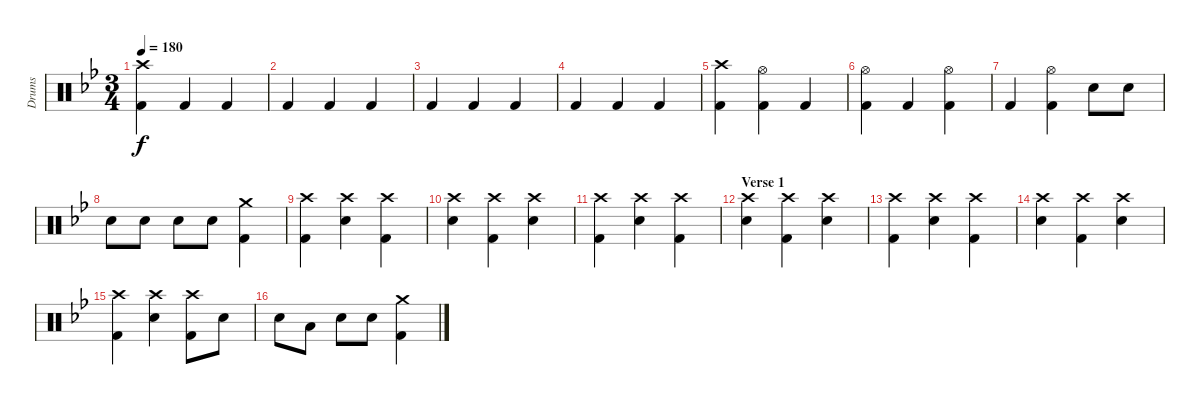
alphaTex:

\bracketExtendMode groupsimilarinstruments
\track ("Drumkit" "Drums") {instrument percussion}
\staff {score}
\articulation defaults
\ts (3 4)
\tempo 180
\clef neutral
\ks bb
("Crash high (hit)"{acc forcenatural} "Kick (hit) 2"{acc forcenatural}).4{dy f} "Kick (hit) 2"{acc forcenatural}.4 "Kick (hit) 2"{acc forcenatural}.4 |
"Kick (hit) 2"{acc forcenatural}.4 "Kick (hit) 2"{acc forcenatural}.4 "Kick (hit) 2"{acc forcenatural}.4 |
"Kick (hit) 2"{acc forcenatural}.4 "Kick (hit) 2"{acc forcenatural}.4 "Kick (hit) 2"{acc forcenatural}.4 |
"Kick (hit) 2"{acc forcenatural}.4 "Kick (hit) 2"{acc forcenatural}.4 "Kick (hit) 2"{acc forcenatural}.4 |
("Crash high (hit)"{acc forcenatural} "Kick (hit) 2"{acc forcenatural}).4 ("Hi-Hat (open)"{acc forcenatural} "Kick (hit) 2"{acc forcenatural}).4 "Kick (hit) 2"{acc forcenatural}.4 |
("Hi-Hat (open)"{acc forcenatural} "Kick (hit) 2"{acc forcenatural}).4 "Kick (hit) 2"{acc forcenatural}.4 ("Hi-Hat (open)"{acc forcenatural} "Kick (hit) 2"{acc forcenatural}).4 |
"Kick (hit) 2"{acc forcenatural}.4 ("Hi-Hat (open)"{acc forcenatural} "Kick (hit) 2"{acc forcenatural}).4 "Snare (hit) 2"{acc forcenatural}.8 "Snare (hit) 2"{acc forcenatural}.8 |
"Snare (hit) 2"{acc forcenatural}.8 "Snare (hit) 2"{acc forcenatural}.8 "Snare (hit) 2"{acc forcenatural}.8 "Snare (hit) 2"{acc forcenatural}.8 ("Crash medium (hit)"{acc forcenatural} "Kick (hit) 2"{acc forcenatural}).4 |
("Crash high (hit)"{acc forcenatural} "Kick (hit) 2"{acc forcenatural}).4 ("Crash high (hit)"{acc forcenatural} "Snare (hit) 2"{acc forcenatural}).4 ("Crash high (hit)"{acc forcenatural} "Kick (hit) 2"{acc forcenatural}).4 |
("Crash high (hit)"{acc forcenatural} "Snare (hit) 2"{acc forcenatural}).4 ("Crash high (hit)"{acc forcenatural} "Kick (hit) 2"{acc forcenatural}).4 ("Crash high (hit)"{acc forcenatural} "Snare (hit) 2"{acc forcenatural}).4 |
("Crash high (hit)"{acc forcenatural} "Kick (hit) 2"{acc forcenatural}).4 ("Crash high (hit)"{acc forcenatural} "Snare (hit) 2"{acc forcenatural}).4 ("Crash high (hit)"{acc forcenatural} "Kick (hit) 2"{acc forcenatural}).4 |
\section ("" "Verse 1")
("Crash high (hit)"{acc forcenatural} "Snare (hit) 2"{acc forcenatural}).4 ("Crash high (hit)"{acc forcenatural} "Kick (hit) 2"{acc forcenatural}).4 ("Crash high (hit)"{acc forcenatural} "Snare (hit) 2"{acc forcenatural}).4 |
("Crash high (hit)"{acc forcenatural} "Kick (hit) 2"{acc forcenatural}).4 ("Crash high (hit)"{acc forcenatural} "Snare (hit) 2"{acc forcenatural}).4 ("Crash high (hit)"{acc forcenatural} "Kick (hit) 2"{acc forcenatural}).4 |
("Crash high (hit)"{acc forcenatural} "Snare (hit) 2"{acc forcenatural}).4 ("Crash high (hit)"{acc forcenatural} "Kick (hit) 2"{acc forcenatural}).4 ("Crash high (hit)"{acc forcenatural} "Snare (hit) 2"{acc forcenatural}).4 |
("Crash high (hit)"{acc forcenatural} "Kick (hit) 2"{acc forcenatural}).4 ("Crash high (hit)"{acc forcenatural} "Snare (hit) 2"{acc forcenatural}).4 ("Crash high (hit)"{acc forcenatural} "Kick (hit) 2"{acc forcenatural}).8 "Snare (hit) 2"{acc forcenatural}.8 |
"Snare (hit) 2"{acc forcenatural}.8 "Low Tom (hit)"{acc forcenatural}.8 "Snare (hit) 2"{acc forcenatural}.8 "Snare (hit) 2"{acc forcenatural}.8 ("Crash medium (hit)"{acc forcenatural} "Kick (hit) 2"{acc forcenatural}).4
